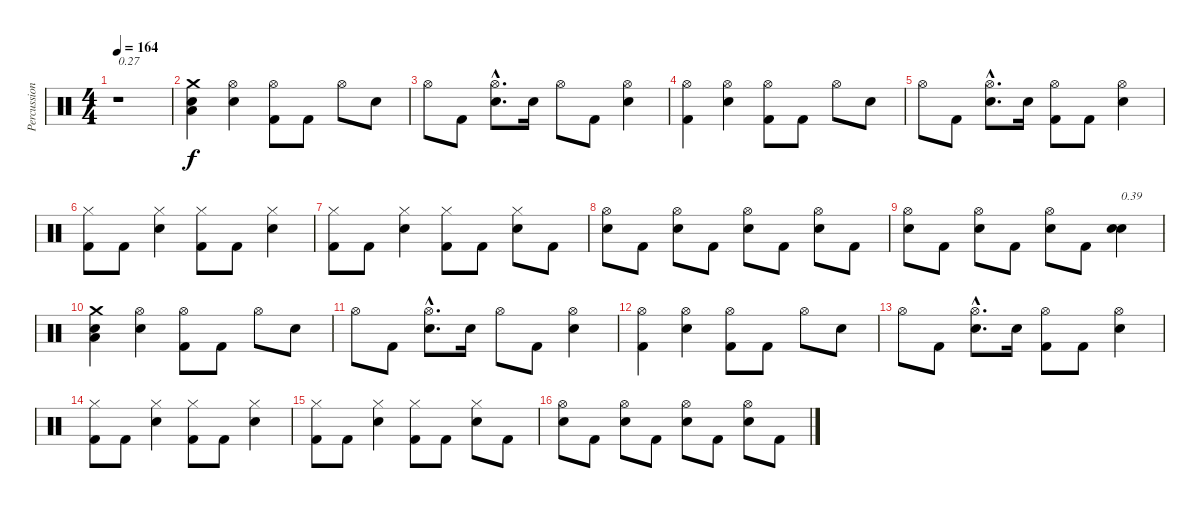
\track ("Percussions" "Percussion") {instrument percussion}
\staff {score}
\articulation defaults
\ts (4 4)
\tempo 164
\clef neutral
\ks c
r.1{txt "0.27" dy f} |
("Snare (hit) 2" "Low Tom (hit)" "Crash medium (hit)").4 ("Snare (hit) 2" "Hi-Hat (open)").4 ("Kick (hit) 2" "Hi-Hat (open)").8 "Kick (hit) 2".8 "Hi-Hat (open)".8 "Snare (hit) 2".8 |
"Hi-Hat (open)".8 "Kick (hit) 2".8 ("Snare (hit) 2"{hac} "Hi-Hat (open)"{hac}).8{d} "Snare (hit) 2".16 "Hi-Hat (open)".8 "Kick (hit) 2".8 ("Snare (hit) 2" "Hi-Hat (open)").4 |
("Kick (hit) 2" "Hi-Hat (open)").4 ("Snare (hit) 2" "Hi-Hat (open)").4 ("Kick (hit) 2" "Hi-Hat (open)").8 "Kick (hit) 2".8 "Hi-Hat (open)".8 "Snare (hit) 2".8 |
"Hi-Hat (open)".8 "Kick (hit) 2".8 ("Snare (hit) 2"{hac} "Hi-Hat (open)"{hac}).8{d} "Snare (hit) 2".16 ("Kick (hit) 2" "Hi-Hat (open)").8 "Kick (hit) 2".8 ("Snare (hit) 2" "Hi-Hat (open)").4 |
("Kick (hit) 2" "Hi-Hat (closed)").8 "Kick (hit) 2".8 ("Snare (hit) 2" "Hi-Hat (closed)").4 ("Kick (hit) 2" "Hi-Hat (closed)").8 "Kick (hit) 2".8 ("Snare (hit) 2" "Hi-Hat (closed)").4 |
("Kick (hit) 2" "Hi-Hat (closed)").8 "Kick (hit) 2".8 ("Snare (hit) 2" "Hi-Hat (closed)").4 ("Kick (hit) 2" "Hi-Hat (closed)").8 "Kick (hit) 2".8 ("Snare (hit) 2" "Hi-Hat (closed)").8 "Kick (hit) 2".8 |
("Snare (hit) 2" "Hi-Hat (open)").8 "Kick (hit) 2".8 ("Snare (hit) 2" "Hi-Hat (open)").8 "Kick (hit) 2".8 ("Snare (hit) 2" "Hi-Hat (open)").8 "Kick (hit) 2".8 ("Snare (hit) 2" "Hi-Hat (open)").8 "Kick (hit) 2".8 |
("Snare (hit) 2" "Hi-Hat (open)").8 "Kick (hit) 2".8 ("Snare (hit) 2" "Hi-Hat (open)").8 "Kick (hit) 2".8 ("Snare (hit) 2" "Hi-Hat (open)").8 "Kick (hit) 2".8 ("Electric Snare (hit)" "Snare (hit) 2").4{txt "0.39"} |
("Snare (hit) 2" "Low Tom (hit)" "Crash medium (hit)").4 ("Snare (hit) 2" "Hi-Hat (open)").4 ("Kick (hit) 2" "Hi-Hat (open)").8 "Kick (hit) 2".8 "Hi-Hat (open)".8 "Snare (hit) 2".8 |
"Hi-Hat (open)".8 "Kick (hit) 2".8 ("Snare (hit) 2"{hac} "Hi-Hat (open)"{hac}).8{d} "Snare (hit) 2".16 "Hi-Hat (open)".8 "Kick (hit) 2".8 ("Snare (hit) 2" "Hi-Hat (open)").4 |
("Kick (hit) 2" "Hi-Hat (open)").4 ("Snare (hit) 2" "Hi-Hat (open)").4 ("Kick (hit) 2" "Hi-Hat (open)").8 "Kick (hit) 2".8 "Hi-Hat (open)".8 "Snare (hit) 2".8 |
"Hi-Hat (open)".8 "Kick (hit) 2".8 ("Snare (hit) 2"{hac} "Hi-Hat (open)"{hac}).8{d} "Snare (hit) 2".16 ("Kick (hit) 2" "Hi-Hat (open)").8 "Kick (hit) 2".8 ("Snare (hit) 2" "Hi-Hat (open)").4 |
("Kick (hit) 2" "Hi-Hat (closed)").8 "Kick (hit) 2".8 ("Snare (hit) 2" "Hi-Hat (closed)").4 ("Kick (hit) 2" "Hi-Hat (closed)").8 "Kick (hit) 2".8 ("Snare (hit) 2" "Hi-Hat (closed)").4 |
("Kick (hit) 2" "Hi-Hat (closed)").8 "Kick (hit) 2".8 ("Snare (hit) 2" "Hi-Hat (closed)").4 ("Kick (hit) 2" "Hi-Hat (closed)").8 "Kick (hit) 2".8 ("Snare (hit) 2" "Hi-Hat (closed)").8 "Kick (hit) 2".8 |
("Snare (hit) 2" "Hi-Hat (open)").8 "Kick (hit) 2".8 ("Snare (hit) 2" "Hi-Hat (open)").8 "Kick (hit) 2".8 ("Snare (hit) 2" "Hi-Hat (open)").8 "Kick (hit) 2".8 ("Snare (hit) 2" "Hi-Hat (open)").8 "Kick (hit) 2".8
